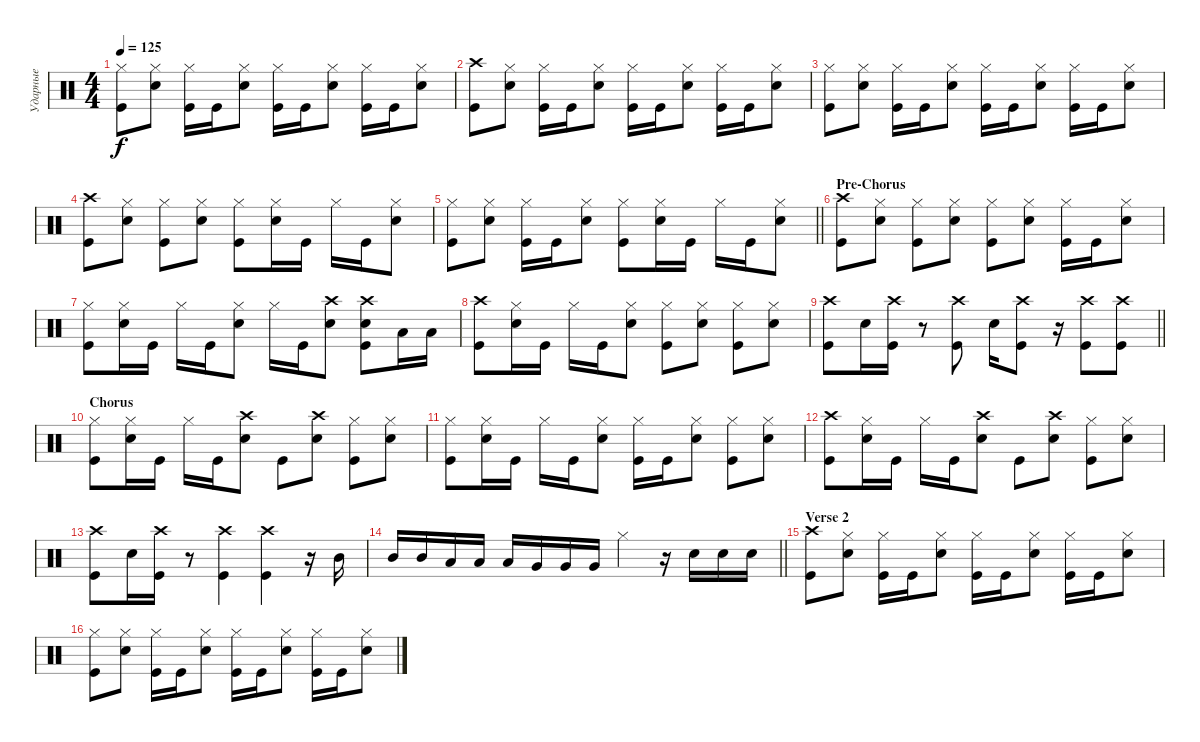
\track ("Ударные" "Ударные") {instrument percussion}
\staff {score}
\articulation defaults
\ts (4 4)
\tempo 125
\clef neutral
\ks aminor
("Kick (hit)" "Hi-Hat (closed)").8{dy f} ("Snare (hit) 2" "Hi-Hat (closed)").8 ("Kick (hit)" "Hi-Hat (closed)").16 "Kick (hit)".16 ("Snare (hit) 2" "Hi-Hat (closed)").8 ("Hi-Hat (closed)" "Kick (hit)").16 "Kick (hit)".16 ("Snare (hit) 2" "Hi-Hat (closed)").8 ("Kick (hit)" "Hi-Hat (closed)").16 "Kick (hit)".16 ("Snare (hit) 2" "Hi-Hat (closed)").8 |
("Kick (hit)" "Crash high (hit)").8 ("Snare (hit) 2" "Hi-Hat (closed)").8 ("Kick (hit)" "Hi-Hat (closed)").16 "Kick (hit)".16 ("Snare (hit) 2" "Hi-Hat (closed)").8 ("Hi-Hat (closed)" "Kick (hit)").16 "Kick (hit)".16 ("Snare (hit) 2" "Hi-Hat (closed)").8 ("Kick (hit)" "Hi-Hat (closed)").16 "Kick (hit)".16 ("Snare (hit) 2" "Hi-Hat (closed)").8 |
("Kick (hit)" "Hi-Hat (closed)").8 ("Snare (hit) 2" "Hi-Hat (closed)").8 ("Kick (hit)" "Hi-Hat (closed)").16 "Kick (hit)".16 ("Snare (hit) 2" "Hi-Hat (closed)").8 ("Hi-Hat (closed)" "Kick (hit)").16 "Kick (hit)".16 ("Snare (hit) 2" "Hi-Hat (closed)").8 ("Kick (hit)" "Hi-Hat (closed)").16 "Kick (hit)".16 ("Snare (hit) 2" "Hi-Hat (closed)").8 |
("Kick (hit)" "Crash high (hit)").8 ("Snare (hit) 2" "Hi-Hat (closed)").8 ("Kick (hit)" "Hi-Hat (closed)").8 ("Snare (hit) 2" "Hi-Hat (closed)").8 ("Kick (hit)" "Hi-Hat (closed)").8 ("Snare (hit) 2" "Hi-Hat (closed)").16 "Kick (hit)".16 "Hi-Hat (closed)".16 "Kick (hit)".16 ("Snare (hit) 2" "Hi-Hat (closed)").8 |
\barLineRight lightlight
("Kick (hit)" "Hi-Hat (closed)").8 ("Snare (hit) 2" "Hi-Hat (closed)").8 ("Kick (hit)" "Hi-Hat (closed)").16 "Kick (hit)".16 ("Snare (hit) 2" "Hi-Hat (closed)").8 ("Kick (hit)" "Hi-Hat (closed)").8 ("Snare (hit) 2" "Hi-Hat (closed)").16 "Kick (hit)".16 "Hi-Hat (closed)".16 "Kick (hit)".16 ("Snare (hit) 2" "Hi-Hat (closed)").8 |
\section ("" "Pre-Chorus")
("Kick (hit)" "Crash high (hit)").8 ("Snare (hit) 2" "Hi-Hat (closed)").8 ("Kick (hit)" "Hi-Hat (closed)").8 ("Snare (hit) 2" "Hi-Hat (closed)").8 ("Kick (hit)" "Hi-Hat (closed)").8 ("Snare (hit) 2" "Hi-Hat (closed)").8 ("Hi-Hat (closed)" "Kick (hit)").16 "Kick (hit)".16 ("Snare (hit) 2" "Hi-Hat (closed)").8 |
("Kick (hit)" "Hi-Hat (closed)").8 ("Snare (hit) 2" "Hi-Hat (closed)").16 "Kick (hit)".16 "Hi-Hat (closed)".16 "Kick (hit)".16 ("Snare (hit) 2" "Hi-Hat (closed)").8 "Hi-Hat (closed)".16 "Kick (hit)".16 ("Snare (hit) 2" "Crash high (hit)").8 ("Kick (hit)" "Snare (hit) 2" "Crash high (hit)").8 "Low Tom (hit)".16 "Low Tom (hit)".16 |
("Kick (hit)" "Crash high (hit)").8 ("Snare (hit) 2" "Hi-Hat (closed)").16 "Kick (hit)".16 "Hi-Hat (closed)".16 "Kick (hit)".16 ("Snare (hit) 2" "Hi-Hat (closed)").8 ("Kick (hit)" "Hi-Hat (closed)").8 ("Snare (hit) 2" "Hi-Hat (closed)").8 ("Kick (hit)" "Hi-Hat (closed)").8 ("Snare (hit) 2" "Hi-Hat (closed)").8 |
\barLineRight lightlight
("Kick (hit)" "Crash high (hit)").8 "Snare (hit) 2".16 ("Kick (hit)" "Crash high (hit)").16 r.8 ("Kick (hit)" "Crash high (hit)").8 "Snare (hit) 2".16 ("Kick (hit)" "Crash high (hit)").8 r.16 ("Kick (hit)" "Crash high (hit)").8 ("Kick (hit)" "Crash high (hit)").8 |
\section ("" "Chorus")
("Kick (hit)" "Hi-Hat (closed)").8 ("Snare (hit) 2" "Hi-Hat (closed)").16 "Kick (hit)".16 "Hi-Hat (closed)".16 "Kick (hit)".16 ("Snare (hit) 2" "Crash high (hit)").8 "Kick (hit)".8 ("Snare (hit) 2" "Crash high (hit)").8 ("Kick (hit)" "Hi-Hat (closed)").8 ("Snare (hit) 2" "Hi-Hat (closed)").8 |
("Kick (hit)" "Hi-Hat (closed)").8 ("Snare (hit) 2" "Hi-Hat (closed)").16 "Kick (hit)".16 "Hi-Hat (closed)".16 "Kick (hit)".16 ("Snare (hit) 2" "Hi-Hat (closed)").8 ("Kick (hit)" "Hi-Hat (closed)").16 "Kick (hit)".16 ("Snare (hit) 2" "Hi-Hat (closed)").8 ("Kick (hit)" "Hi-Hat (closed)").8 ("Snare (hit) 2" "Hi-Hat (closed)").8 |
("Kick (hit)" "Crash high (hit)").8 ("Snare (hit) 2" "Hi-Hat (closed)").16 "Kick (hit)".16 "Hi-Hat (closed)".16 "Kick (hit)".16 ("Snare (hit) 2" "Crash high (hit)").8 "Kick (hit)".8 ("Snare (hit) 2" "Crash high (hit)").8 ("Kick (hit)" "Hi-Hat (closed)").8 ("Snare (hit) 2" "Hi-Hat (closed)").8 |
("Kick (hit)" "Crash high (hit)").8 "Snare (hit) 2".16 ("Kick (hit)" "Crash high (hit)").16 r.8 ("Kick (hit)" "Crash high (hit)").4 ("Kick (hit)" "Crash high (hit)").4 r.16 "Mid Tom (hit)".16 |
\barLineRight lightlight "Mid Tom (hit)".16 "Mid Tom (hit)".16 "Low Tom (hit)".16 "Low Tom (hit)".16 "Low Tom (hit)".16 "Very Low Tom (hit)".16 "Very Low Tom (hit)".16 "Very Low Tom (hit)".16 "Hi-Hat (closed)".4
r.16 "Snare (hit) 2".16 "Snare (hit) 2".16 "Snare (hit) 2".16 |
\section ("" "Verse 2")
("Kick (hit)" "Crash high (hit)").8 ("Snare (hit) 2" "Hi-Hat (closed)").8 ("Kick (hit)" "Hi-Hat (closed)").16 "Kick (hit)".16 ("Snare (hit) 2" "Hi-Hat (closed)").8 ("Hi-Hat (closed)" "Kick (hit)").16 "Kick (hit)".16 ("Snare (hit) 2" "Hi-Hat (closed)").8 ("Kick (hit)" "Hi-Hat (closed)").16 "Kick (hit)".16 ("Snare (hit) 2" "Hi-Hat (closed)").8 |
("Kick (hit)" "Hi-Hat (closed)").8 ("Snare (hit) 2" "Hi-Hat (closed)").8 ("Kick (hit)" "Hi-Hat (closed)").16 "Kick (hit)".16 ("Snare (hit) 2" "Hi-Hat (closed)").8 ("Hi-Hat (closed)" "Kick (hit)").16 "Kick (hit)".16 ("Snare (hit) 2" "Hi-Hat (closed)").8 ("Kick (hit)" "Hi-Hat (closed)").16 "Kick (hit)".16 ("Snare (hit) 2" "Hi-Hat (closed)").8
